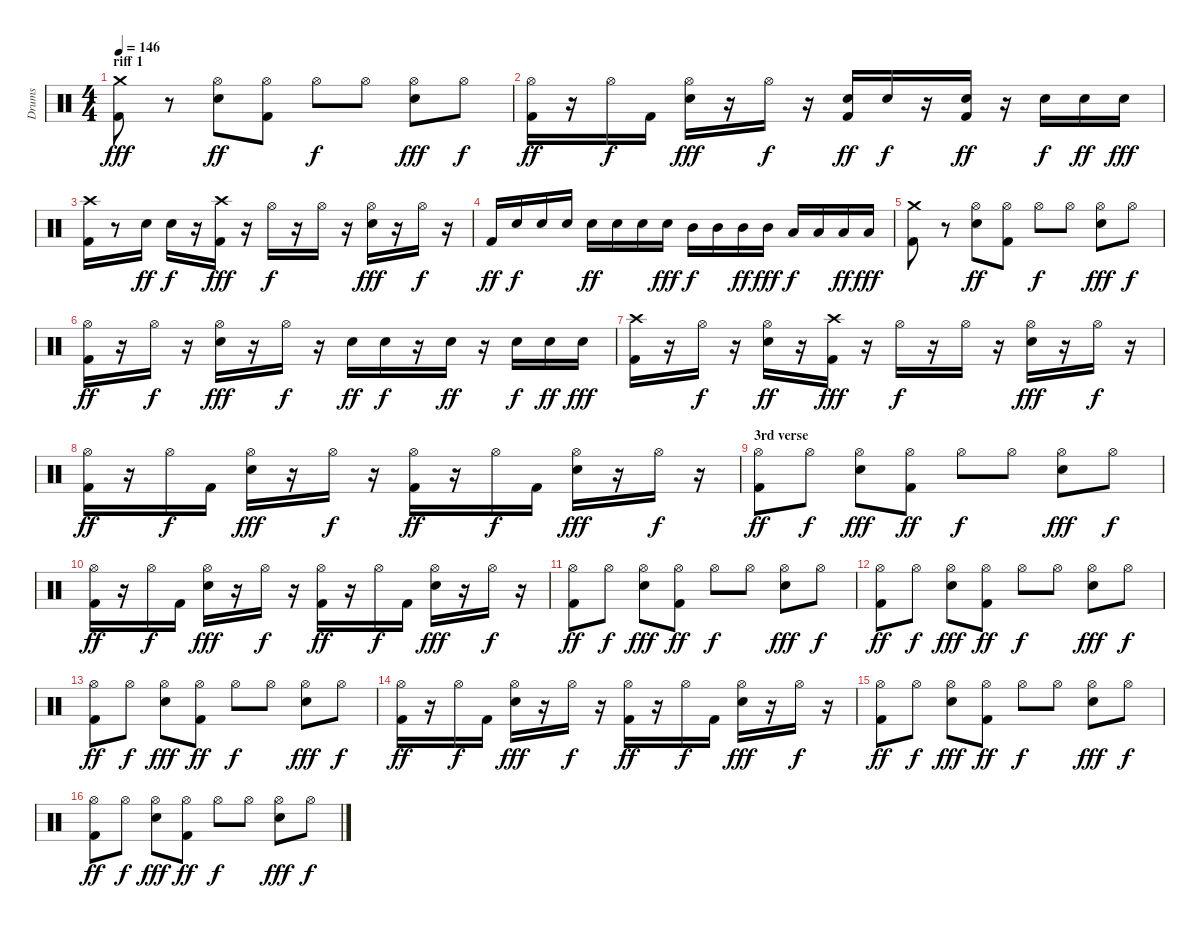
\track ("Drums" "Drums") {instrument percussion}
\staff {score}
\articulation defaults
\ts (4 4)
\section ("" "riff 1")
\tempo 146
\clef neutral
\ks c
("Kick (hit) 2" "Crash medium (hit)").8{dy fff} r.8 ("Hi-Hat (open)" "Snare (hit) 2").8{dy ff} ("Hi-Hat (open)" "Kick (hit) 2").8 "Hi-Hat (open)".8{dy f} "Hi-Hat (open)".8 ("Snare (hit) 2" "Hi-Hat (open)").8{dy fff} "Hi-Hat (open)".8{dy f} |
("Kick (hit) 2" "Hi-Hat (open)").16{dy ff} r.16 "Hi-Hat (open)".16{dy f} "Kick (hit) 2".16 ("Snare (hit) 2" "Hi-Hat (open)").16{dy fff} r.16 "Hi-Hat (open)".16{dy f} r.16 ("Snare (hit) 2" "Kick (hit) 2").16{dy ff} "Snare (hit) 2".16{dy f} r.16 ("Snare (hit) 2" "Kick (hit) 2").16{dy ff} r.16 "Snare (hit) 2".16{dy f} "Snare (hit) 2".16{dy ff} "Snare (hit) 2".16{dy fff} |
("Kick (hit) 2" "Crash high (hit)").16 r.8 "Snare (hit) 2".16{dy ff} "Snare (hit) 2".16{dy f} r.16 ("Kick (hit) 2" "Crash high (hit)").16{dy fff} r.16 "Hi-Hat (open)".16{dy f} r.16 "Hi-Hat (open)".16 r.16 ("Snare (hit) 2" "Hi-Hat (open)").16{dy fff} r.16 "Hi-Hat (open)".16{dy f} r.16 |
"Kick (hit) 2".16{dy ff} "Snare (hit) 2".16{dy f} "Snare (hit) 2".16 "Snare (hit) 2".16 "Snare (hit) 2".16{dy ff} "Snare (hit) 2".16 "Snare (hit) 2".16 "Snare (hit) 2".16{dy fff} "Mid Tom (hit)".16{dy f} "Mid Tom (hit)".16 "Mid Tom (hit)".16{dy ff} "Mid Tom (hit)".16{dy fff} "Low Tom (hit)".16{dy f} "Low Tom (hit)".16 "Low Tom (hit)".16{dy ff} "Low Tom (hit)".16{dy fff} |
("Kick (hit) 2" "Crash medium (hit)").8 r.8 ("Hi-Hat (open)" "Snare (hit) 2").8{dy ff} ("Hi-Hat (open)" "Kick (hit) 2").8 "Hi-Hat (open)".8{dy f} "Hi-Hat (open)".8 ("Snare (hit) 2" "Hi-Hat (open)").8{dy fff} "Hi-Hat (open)".8{dy f} |
("Kick (hit) 2" "Hi-Hat (open)").16{dy ff} r.16 "Hi-Hat (open)".16{dy f} r.16 ("Snare (hit) 2" "Hi-Hat (open)").16{dy fff} r.16 "Hi-Hat (open)".16{dy f} r.16 "Snare (hit) 2".16{dy ff} "Snare (hit) 2".16{dy f} r.16 "Snare (hit) 2".16{dy ff} r.16 "Snare (hit) 2".16{dy f} "Snare (hit) 2".16{dy ff} "Snare (hit) 2".16{dy fff} |
("Kick (hit) 2" "Crash high (hit)").16 r.16 "Hi-Hat (open)".16{dy f} r.16 ("Hi-Hat (open)" "Snare (hit) 2").16{dy ff} r.16 ("Kick (hit) 2" "Crash high (hit)").16{dy fff} r.16 "Hi-Hat (open)".16{dy f} r.16 "Hi-Hat (open)".16 r.16 ("Snare (hit) 2" "Hi-Hat (open)").16{dy fff} r.16 "Hi-Hat (open)".16{dy f} r.16 |
("Kick (hit) 2" "Hi-Hat (open)").16{dy ff} r.16 "Hi-Hat (open)".16{dy f} "Kick (hit) 2".16 ("Snare (hit) 2" "Hi-Hat (open)").16{dy fff} r.16 "Hi-Hat (open)".16{dy f} r.16 ("Kick (hit) 2" "Hi-Hat (open)").16{dy ff} r.16 "Hi-Hat (open)".16{dy f} "Kick (hit) 2".16 ("Snare (hit) 2" "Hi-Hat (open)").16{dy fff} r.16 "Hi-Hat (open)".16{dy f} r.16 |
\section ("" "3rd verse")
("Kick (hit) 2" "Hi-Hat (open)").8{dy ff} "Hi-Hat (open)".8{dy f} ("Snare (hit) 2" "Hi-Hat (open)").8{dy fff} ("Kick (hit) 2" "Hi-Hat (open)").8{dy ff} "Hi-Hat (open)".8{dy f} "Hi-Hat (open)".8 ("Snare (hit) 2" "Hi-Hat (open)").8{dy fff} "Hi-Hat (open)".8{dy f} |
("Kick (hit) 2" "Hi-Hat (open)").16{dy ff} r.16 "Hi-Hat (open)".16{dy f} "Kick (hit) 2".16 ("Snare (hit) 2" "Hi-Hat (open)").16{dy fff} r.16 "Hi-Hat (open)".16{dy f} r.16 ("Kick (hit) 2" "Hi-Hat (open)").16{dy ff} r.16 "Hi-Hat (open)".16{dy f} "Kick (hit) 2".16 ("Snare (hit) 2" "Hi-Hat (open)").16{dy fff} r.16 "Hi-Hat (open)".16{dy f} r.16 |
("Kick (hit) 2" "Hi-Hat (open)").8{dy ff} "Hi-Hat (open)".8{dy f} ("Snare (hit) 2" "Hi-Hat (open)").8{dy fff} ("Kick (hit) 2" "Hi-Hat (open)").8{dy ff} "Hi-Hat (open)".8{dy f} "Hi-Hat (open)".8 ("Snare (hit) 2" "Hi-Hat (open)").8{dy fff} "Hi-Hat (open)".8{dy f} |
("Kick (hit) 2" "Hi-Hat (open)").8{dy ff} "Hi-Hat (open)".8{dy f} ("Snare (hit) 2" "Hi-Hat (open)").8{dy fff} ("Kick (hit) 2" "Hi-Hat (open)").8{dy ff} "Hi-Hat (open)".8{dy f} "Hi-Hat (open)".8 ("Snare (hit) 2" "Hi-Hat (open)").8{dy fff} "Hi-Hat (open)".8{dy f} |
("Kick (hit) 2" "Hi-Hat (open)").8{dy ff} "Hi-Hat (open)".8{dy f} ("Snare (hit) 2" "Hi-Hat (open)").8{dy fff} ("Kick (hit) 2" "Hi-Hat (open)").8{dy ff} "Hi-Hat (open)".8{dy f} "Hi-Hat (open)".8 ("Snare (hit) 2" "Hi-Hat (open)").8{dy fff} "Hi-Hat (open)".8{dy f} |
("Kick (hit) 2" "Hi-Hat (open)").16{dy ff} r.16 "Hi-Hat (open)".16{dy f} "Kick (hit) 2".16 ("Snare (hit) 2" "Hi-Hat (open)").16{dy fff} r.16 "Hi-Hat (open)".16{dy f} r.16 ("Kick (hit) 2" "Hi-Hat (open)").16{dy ff} r.16 "Hi-Hat (open)".16{dy f} "Kick (hit) 2".16 ("Snare (hit) 2" "Hi-Hat (open)").16{dy fff} r.16 "Hi-Hat (open)".16{dy f} r.16 |
("Kick (hit) 2" "Hi-Hat (open)").8{dy ff} "Hi-Hat (open)".8{dy f} ("Snare (hit) 2" "Hi-Hat (open)").8{dy fff} ("Kick (hit) 2" "Hi-Hat (open)").8{dy ff} "Hi-Hat (open)".8{dy f} "Hi-Hat (open)".8 ("Snare (hit) 2" "Hi-Hat (open)").8{dy fff} "Hi-Hat (open)".8{dy f} |
("Kick (hit) 2" "Hi-Hat (open)").8{dy ff} "Hi-Hat (open)".8{dy f} ("Snare (hit) 2" "Hi-Hat (open)").8{dy fff} ("Kick (hit) 2" "Hi-Hat (open)").8{dy ff} "Hi-Hat (open)".8{dy f} "Hi-Hat (open)".8 ("Snare (hit) 2" "Hi-Hat (open)").8{dy fff} "Hi-Hat (open)".8{dy f}
